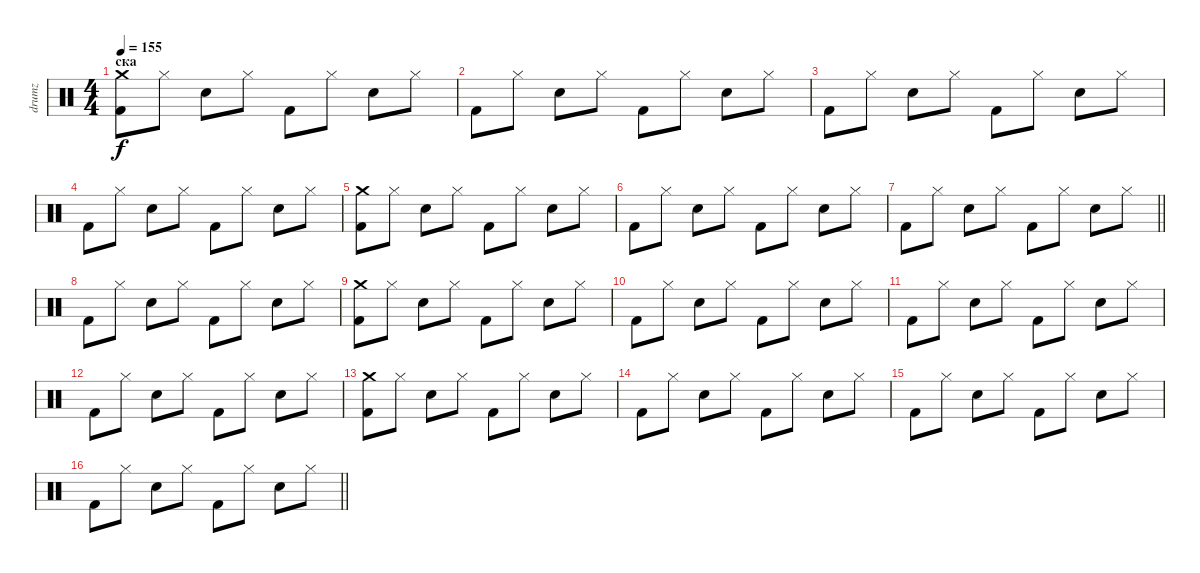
\track ("drumz" "drumz") {instrument percussion}
\staff {score}
\articulation defaults
\ts (4 4)
\section ("" "ска")
\tempo 155
\clef neutral
\ks c
("Crash medium (hit)" "Kick (hit) 2").8{dy f} "Hi-Hat (closed)".8 "Electric Snare (hit)".8 "Hi-Hat (closed)".8 "Kick (hit) 2".8 "Hi-Hat (closed)".8 "Electric Snare (hit)".8 "Hi-Hat (closed)".8 |
"Kick (hit) 2".8 "Hi-Hat (closed)".8 "Electric Snare (hit)".8 "Hi-Hat (closed)".8 "Kick (hit) 2".8 "Hi-Hat (closed)".8 "Electric Snare (hit)".8 "Hi-Hat (closed)".8 |
"Kick (hit) 2".8 "Hi-Hat (closed)".8 "Electric Snare (hit)".8 "Hi-Hat (closed)".8 "Kick (hit) 2".8 "Hi-Hat (closed)".8 "Electric Snare (hit)".8 "Hi-Hat (closed)".8 |
"Kick (hit) 2".8 "Hi-Hat (closed)".8 "Electric Snare (hit)".8 "Hi-Hat (closed)".8 "Kick (hit) 2".8 "Hi-Hat (closed)".8 "Electric Snare (hit)".8 "Hi-Hat (closed)".8 |
("Crash medium (hit)" "Kick (hit) 2").8 "Hi-Hat (closed)".8 "Electric Snare (hit)".8 "Hi-Hat (closed)".8 "Kick (hit) 2".8 "Hi-Hat (closed)".8 "Electric Snare (hit)".8 "Hi-Hat (closed)".8 |
"Kick (hit) 2".8 "Hi-Hat (closed)".8 "Electric Snare (hit)".8 "Hi-Hat (closed)".8 "Kick (hit) 2".8 "Hi-Hat (closed)".8 "Electric Snare (hit)".8 "Hi-Hat (closed)".8 |
\barLineRight lightlight "Kick (hit) 2".8 "Hi-Hat (closed)".8 "Electric Snare (hit)".8 "Hi-Hat (closed)".8 "Kick (hit) 2".8 "Hi-Hat (closed)".8 "Electric Snare (hit)".8 "Hi-Hat (closed)".8
|
\section ("" "")
"Kick (hit) 2".8 "Hi-Hat (closed)".8 "Electric Snare (hit)".8 "Hi-Hat (closed)".8 "Kick (hit) 2".8 "Hi-Hat (closed)".8 "Electric Snare (hit)".8 "Hi-Hat (closed)".8 |
("Crash medium (hit)" "Kick (hit) 2").8 "Hi-Hat (closed)".8 "Electric Snare (hit)".8 "Hi-Hat (closed)".8 "Kick (hit) 2".8 "Hi-Hat (closed)".8 "Electric Snare (hit)".8 "Hi-Hat (closed)".8 |
"Kick (hit) 2".8 "Hi-Hat (closed)".8 "Electric Snare (hit)".8 "Hi-Hat (closed)".8 "Kick (hit) 2".8 "Hi-Hat (closed)".8 "Electric Snare (hit)".8 "Hi-Hat (closed)".8 |
"Kick (hit) 2".8 "Hi-Hat (closed)".8 "Electric Snare (hit)".8 "Hi-Hat (closed)".8 "Kick (hit) 2".8 "Hi-Hat (closed)".8 "Electric Snare (hit)".8 "Hi-Hat (closed)".8 |
"Kick (hit) 2".8 "Hi-Hat (closed)".8 "Electric Snare (hit)".8 "Hi-Hat (closed)".8 "Kick (hit) 2".8 "Hi-Hat (closed)".8 "Electric Snare (hit)".8 "Hi-Hat (closed)".8 |
("Crash medium (hit)" "Kick (hit) 2").8 "Hi-Hat (closed)".8 "Electric Snare (hit)".8 "Hi-Hat (closed)".8 "Kick (hit) 2".8 "Hi-Hat (closed)".8 "Electric Snare (hit)".8 "Hi-Hat (closed)".8 |
"Kick (hit) 2".8 "Hi-Hat (closed)".8 "Electric Snare (hit)".8 "Hi-Hat (closed)".8 "Kick (hit) 2".8 "Hi-Hat (closed)".8 "Electric Snare (hit)".8 "Hi-Hat (closed)".8 |
"Kick (hit) 2".8 "Hi-Hat (closed)".8 "Electric Snare (hit)".8 "Hi-Hat (closed)".8 "Kick (hit) 2".8 "Hi-Hat (closed)".8 "Electric Snare (hit)".8 "Hi-Hat (closed)".8 |
\barLineRight lightlight "Kick (hit) 2".8 "Hi-Hat (closed)".8 "Electric Snare (hit)".8 "Hi-Hat (closed)".8 "Kick (hit) 2".8 "Hi-Hat (closed)".8 "Electric Snare (hit)".8 "Hi-Hat (closed)".8
